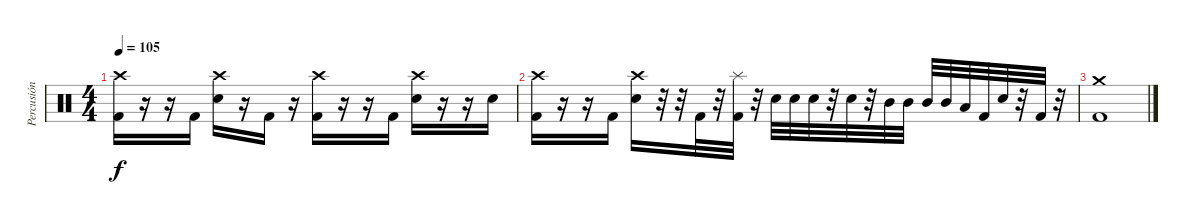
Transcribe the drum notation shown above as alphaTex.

\track ("Percusión" "Percusión") {instrument percussion}
\staff {score}
\articulation defaults
\ts (4 4)
\tempo 105
\clef neutral
\ks c
("Crash high (hit)" "Kick (hit) 2").16{dy f} r.16 r.16 "Kick (hit) 2".16 ("Crash high (hit)" "Electric Snare (hit)").16 r.16 "Kick (hit) 2".16 r.16 ("Crash high (hit)" "Kick (hit) 2").16 r.16 r.16 "Kick (hit) 2".16 ("Crash high (hit)" "Electric Snare (hit)").16 r.16 r.16 "Electric Snare (hit)".16 |
("Crash high (hit)" "Kick (hit) 2").16 r.16 r.16 "Kick (hit) 2".16 ("Crash high (hit)" "Electric Snare (hit)").16 r.32 r.32 "Kick (hit) 2".32 r.32 ("Splash (hit)" "Kick (hit) 2").32 r.32 "Electric Snare (hit)".32 "Electric Snare (hit)".32 "Electric Snare (hit)".32 r.32 "Electric Snare (hit)".32 r.32 "Mid Tom (hit)".32 "Mid Tom (hit)".32 "Mid Tom (hit)".32 "Mid Tom (hit)".32 "Low Tom (hit)".32 "Kick (hit) 2".32 "Electric Snare (hit)".32 r.32 "Kick (hit) 2".32 r.32 |
("Crash medium (hit)" "Kick (hit) 2").1
